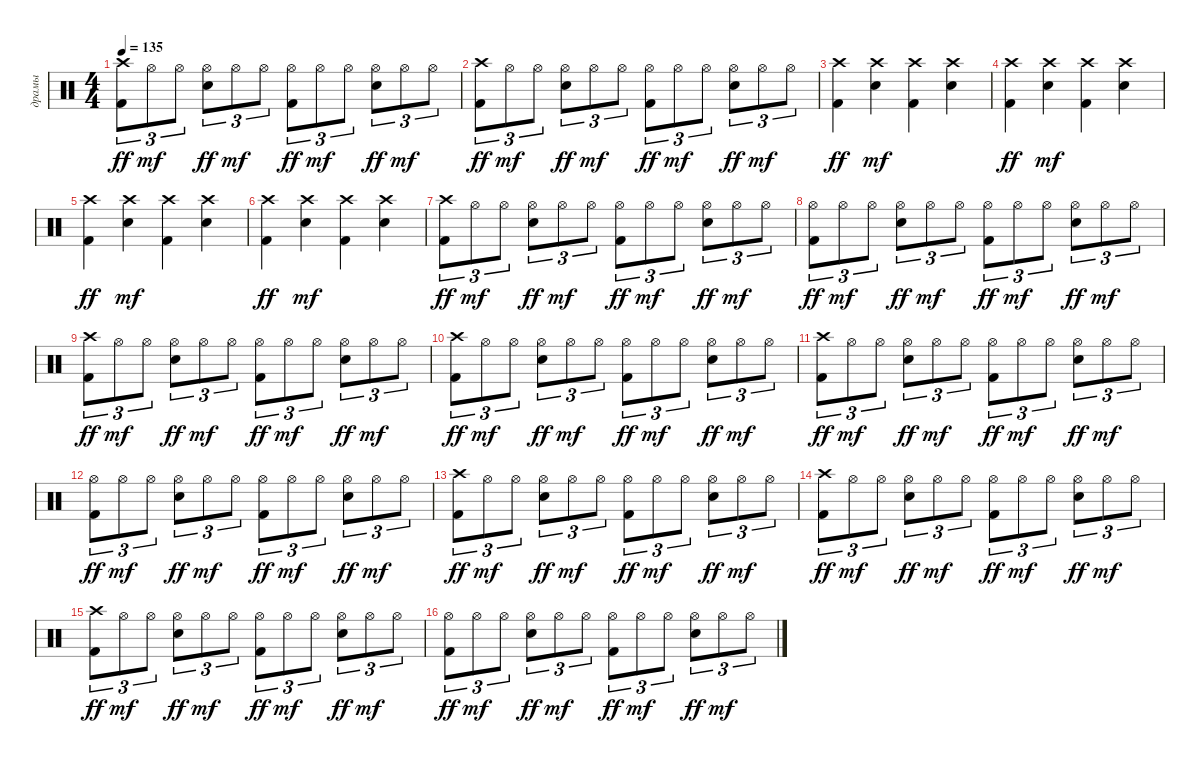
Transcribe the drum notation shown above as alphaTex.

\track ("драмы" "драмы") {instrument percussion}
\staff {score}
\articulation defaults
\ts (4 4)
\tempo 135
\clef neutral
\ks c
("Crash high (hit)" "Kick (hit) 2").8{tu (3 2) dy ff} "Hi-Hat (open)".8{tu (3 2) dy mf} "Hi-Hat (open)".8{tu (3 2)} ("Hi-Hat (open)" "Snare (hit) 2").8{tu (3 2) dy ff} "Hi-Hat (open)".8{tu (3 2) dy mf} "Hi-Hat (open)".8{tu (3 2)} ("Hi-Hat (open)" "Kick (hit) 2").8{tu (3 2) dy ff} "Hi-Hat (open)".8{tu (3 2) dy mf} "Hi-Hat (open)".8{tu (3 2)} ("Hi-Hat (open)" "Snare (hit) 2").8{tu (3 2) dy ff} "Hi-Hat (open)".8{tu (3 2) dy mf} "Hi-Hat (open)".8{tu (3 2)} |
("Crash high (hit)" "Kick (hit) 2").8{tu (3 2) dy ff} "Hi-Hat (open)".8{tu (3 2) dy mf} "Hi-Hat (open)".8{tu (3 2)} ("Hi-Hat (open)" "Snare (hit) 2").8{tu (3 2) dy ff} "Hi-Hat (open)".8{tu (3 2) dy mf} "Hi-Hat (open)".8{tu (3 2)} ("Hi-Hat (open)" "Kick (hit) 2").8{tu (3 2) dy ff} "Hi-Hat (open)".8{tu (3 2) dy mf} "Hi-Hat (open)".8{tu (3 2)} ("Hi-Hat (open)" "Snare (hit) 2").8{tu (3 2) dy ff} "Hi-Hat (open)".8{tu (3 2) dy mf} "Hi-Hat (open)".8{tu (3 2)} |
("Kick (hit) 2" "Crash high (hit)").4{dy ff} ("Snare (hit) 2" "Crash high (hit)").4{dy mf} ("Kick (hit) 2" "Crash high (hit)").4 ("Snare (hit) 2" "Crash high (hit)").4 |
("Kick (hit) 2" "Crash high (hit)").4{dy ff} ("Snare (hit) 2" "Crash high (hit)").4{dy mf} ("Kick (hit) 2" "Crash high (hit)").4 ("Snare (hit) 2" "Crash high (hit)").4 |
("Kick (hit) 2" "Crash high (hit)").4{dy ff} ("Snare (hit) 2" "Crash high (hit)").4{dy mf} ("Kick (hit) 2" "Crash high (hit)").4 ("Snare (hit) 2" "Crash high (hit)").4 |
("Kick (hit) 2" "Crash high (hit)").4{dy ff} ("Snare (hit) 2" "Crash high (hit)").4{dy mf} ("Kick (hit) 2" "Crash high (hit)").4 ("Snare (hit) 2" "Crash high (hit)").4 |
("Crash high (hit)" "Kick (hit) 2").8{tu (3 2) dy ff} "Hi-Hat (open)".8{tu (3 2) dy mf} "Hi-Hat (open)".8{tu (3 2)} ("Hi-Hat (open)" "Snare (hit) 2").8{tu (3 2) dy ff} "Hi-Hat (open)".8{tu (3 2) dy mf} "Hi-Hat (open)".8{tu (3 2)} ("Hi-Hat (open)" "Kick (hit) 2").8{tu (3 2) dy ff} "Hi-Hat (open)".8{tu (3 2) dy mf} "Hi-Hat (open)".8{tu (3 2)} ("Hi-Hat (open)" "Snare (hit) 2").8{tu (3 2) dy ff} "Hi-Hat (open)".8{tu (3 2) dy mf} "Hi-Hat (open)".8{tu (3 2)} |
("Hi-Hat (open)" "Kick (hit) 2").8{tu (3 2) dy ff} "Hi-Hat (open)".8{tu (3 2) dy mf} "Hi-Hat (open)".8{tu (3 2)} ("Hi-Hat (open)" "Snare (hit) 2").8{tu (3 2) dy ff} "Hi-Hat (open)".8{tu (3 2) dy mf} "Hi-Hat (open)".8{tu (3 2)} ("Hi-Hat (open)" "Kick (hit) 2").8{tu (3 2) dy ff} "Hi-Hat (open)".8{tu (3 2) dy mf} "Hi-Hat (open)".8{tu (3 2)} ("Hi-Hat (open)" "Snare (hit) 2").8{tu (3 2) dy ff} "Hi-Hat (open)".8{tu (3 2) dy mf} "Hi-Hat (open)".8{tu (3 2)} |
("Crash high (hit)" "Kick (hit) 2").8{tu (3 2) dy ff} "Hi-Hat (open)".8{tu (3 2) dy mf} "Hi-Hat (open)".8{tu (3 2)} ("Hi-Hat (open)" "Snare (hit) 2").8{tu (3 2) dy ff} "Hi-Hat (open)".8{tu (3 2) dy mf} "Hi-Hat (open)".8{tu (3 2)} ("Hi-Hat (open)" "Kick (hit) 2").8{tu (3 2) dy ff} "Hi-Hat (open)".8{tu (3 2) dy mf} "Hi-Hat (open)".8{tu (3 2)} ("Hi-Hat (open)" "Snare (hit) 2").8{tu (3 2) dy ff} "Hi-Hat (open)".8{tu (3 2) dy mf} "Hi-Hat (open)".8{tu (3 2)} |
("Crash high (hit)" "Kick (hit) 2").8{tu (3 2) dy ff} "Hi-Hat (open)".8{tu (3 2) dy mf} "Hi-Hat (open)".8{tu (3 2)} ("Hi-Hat (open)" "Snare (hit) 2").8{tu (3 2) dy ff} "Hi-Hat (open)".8{tu (3 2) dy mf} "Hi-Hat (open)".8{tu (3 2)} ("Hi-Hat (open)" "Kick (hit) 2").8{tu (3 2) dy ff} "Hi-Hat (open)".8{tu (3 2) dy mf} "Hi-Hat (open)".8{tu (3 2)} ("Hi-Hat (open)" "Snare (hit) 2").8{tu (3 2) dy ff} "Hi-Hat (open)".8{tu (3 2) dy mf} "Hi-Hat (open)".8{tu (3 2)} |
("Crash high (hit)" "Kick (hit) 2").8{tu (3 2) dy ff} "Hi-Hat (open)".8{tu (3 2) dy mf} "Hi-Hat (open)".8{tu (3 2)} ("Hi-Hat (open)" "Snare (hit) 2").8{tu (3 2) dy ff} "Hi-Hat (open)".8{tu (3 2) dy mf} "Hi-Hat (open)".8{tu (3 2)} ("Hi-Hat (open)" "Kick (hit) 2").8{tu (3 2) dy ff} "Hi-Hat (open)".8{tu (3 2) dy mf} "Hi-Hat (open)".8{tu (3 2)} ("Hi-Hat (open)" "Snare (hit) 2").8{tu (3 2) dy ff} "Hi-Hat (open)".8{tu (3 2) dy mf} "Hi-Hat (open)".8{tu (3 2)} |
("Hi-Hat (open)" "Kick (hit) 2").8{tu (3 2) dy ff} "Hi-Hat (open)".8{tu (3 2) dy mf} "Hi-Hat (open)".8{tu (3 2)} ("Hi-Hat (open)" "Snare (hit) 2").8{tu (3 2) dy ff} "Hi-Hat (open)".8{tu (3 2) dy mf} "Hi-Hat (open)".8{tu (3 2)} ("Hi-Hat (open)" "Kick (hit) 2").8{tu (3 2) dy ff} "Hi-Hat (open)".8{tu (3 2) dy mf} "Hi-Hat (open)".8{tu (3 2)} ("Hi-Hat (open)" "Snare (hit) 2").8{tu (3 2) dy ff} "Hi-Hat (open)".8{tu (3 2) dy mf} "Hi-Hat (open)".8{tu (3 2)} |
("Crash high (hit)" "Kick (hit) 2").8{tu (3 2) dy ff} "Hi-Hat (open)".8{tu (3 2) dy mf} "Hi-Hat (open)".8{tu (3 2)} ("Hi-Hat (open)" "Snare (hit) 2").8{tu (3 2) dy ff} "Hi-Hat (open)".8{tu (3 2) dy mf} "Hi-Hat (open)".8{tu (3 2)} ("Hi-Hat (open)" "Kick (hit) 2").8{tu (3 2) dy ff} "Hi-Hat (open)".8{tu (3 2) dy mf} "Hi-Hat (open)".8{tu (3 2)} ("Hi-Hat (open)" "Snare (hit) 2").8{tu (3 2) dy ff} "Hi-Hat (open)".8{tu (3 2) dy mf} "Hi-Hat (open)".8{tu (3 2)} |
("Crash high (hit)" "Kick (hit) 2").8{tu (3 2) dy ff} "Hi-Hat (open)".8{tu (3 2) dy mf} "Hi-Hat (open)".8{tu (3 2)} ("Hi-Hat (open)" "Snare (hit) 2").8{tu (3 2) dy ff} "Hi-Hat (open)".8{tu (3 2) dy mf} "Hi-Hat (open)".8{tu (3 2)} ("Hi-Hat (open)" "Kick (hit) 2").8{tu (3 2) dy ff} "Hi-Hat (open)".8{tu (3 2) dy mf} "Hi-Hat (open)".8{tu (3 2)} ("Hi-Hat (open)" "Snare (hit) 2").8{tu (3 2) dy ff} "Hi-Hat (open)".8{tu (3 2) dy mf} "Hi-Hat (open)".8{tu (3 2)} |
("Crash high (hit)" "Kick (hit) 2").8{tu (3 2) dy ff} "Hi-Hat (open)".8{tu (3 2) dy mf} "Hi-Hat (open)".8{tu (3 2)} ("Hi-Hat (open)" "Snare (hit) 2").8{tu (3 2) dy ff} "Hi-Hat (open)".8{tu (3 2) dy mf} "Hi-Hat (open)".8{tu (3 2)} ("Hi-Hat (open)" "Kick (hit) 2").8{tu (3 2) dy ff} "Hi-Hat (open)".8{tu (3 2) dy mf} "Hi-Hat (open)".8{tu (3 2)} ("Hi-Hat (open)" "Snare (hit) 2").8{tu (3 2) dy ff} "Hi-Hat (open)".8{tu (3 2) dy mf} "Hi-Hat (open)".8{tu (3 2)} |
("Hi-Hat (open)" "Kick (hit) 2").8{tu (3 2) dy ff} "Hi-Hat (open)".8{tu (3 2) dy mf} "Hi-Hat (open)".8{tu (3 2)} ("Hi-Hat (open)" "Snare (hit) 2").8{tu (3 2) dy ff} "Hi-Hat (open)".8{tu (3 2) dy mf} "Hi-Hat (open)".8{tu (3 2)} ("Hi-Hat (open)" "Kick (hit) 2").8{tu (3 2) dy ff} "Hi-Hat (open)".8{tu (3 2) dy mf} "Hi-Hat (open)".8{tu (3 2)} ("Hi-Hat (open)" "Snare (hit) 2").8{tu (3 2) dy ff} "Hi-Hat (open)".8{tu (3 2) dy mf} "Hi-Hat (open)".8{tu (3 2)}
